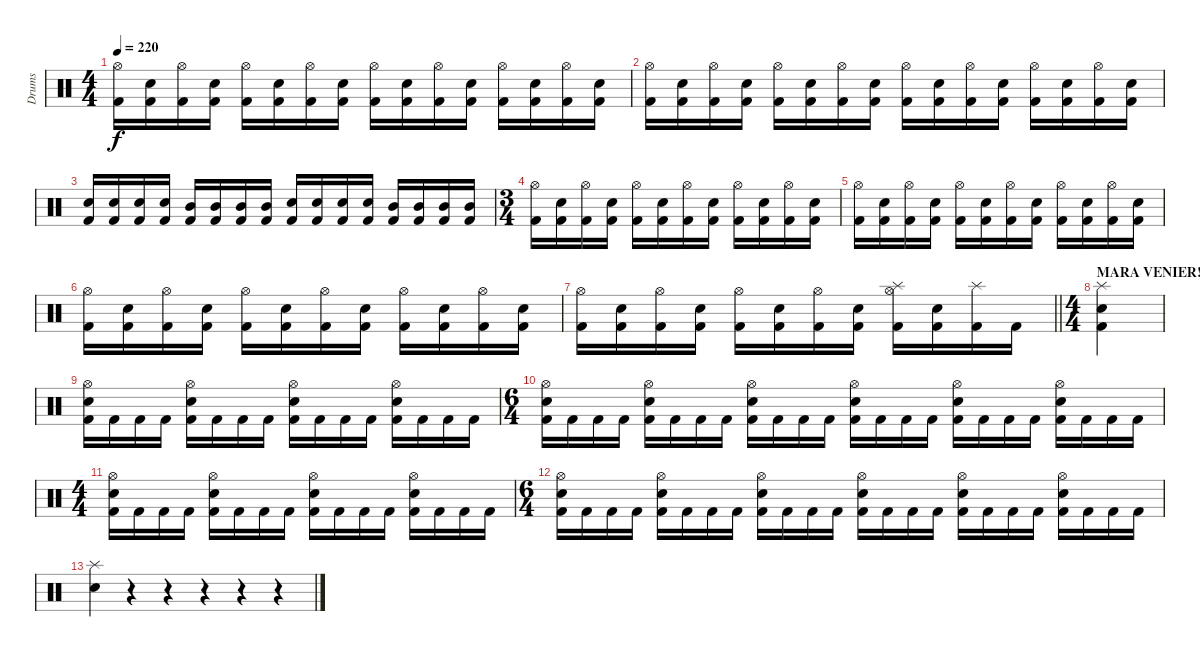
\track ("Drums" "Drums") {instrument percussion}
\staff {score}
\articulation defaults
\ts (4 4)
\tempo 220
\clef neutral
\ks c
("Hi-Hat (open)" "Kick (hit) 2").16{dy f} ("Electric Snare (hit)" "Kick (hit) 2").16 ("Hi-Hat (open)" "Kick (hit) 2").16 ("Electric Snare (hit)" "Kick (hit) 2").16 ("Hi-Hat (open)" "Kick (hit) 2").16 ("Electric Snare (hit)" "Kick (hit) 2").16 ("Hi-Hat (open)" "Kick (hit) 2").16 ("Electric Snare (hit)" "Kick (hit) 2").16 ("Hi-Hat (open)" "Kick (hit) 2").16 ("Electric Snare (hit)" "Kick (hit) 2").16 ("Hi-Hat (open)" "Kick (hit) 2").16 ("Electric Snare (hit)" "Kick (hit) 2").16 ("Hi-Hat (open)" "Kick (hit) 2").16 ("Electric Snare (hit)" "Kick (hit) 2").16 ("Hi-Hat (open)" "Kick (hit) 2").16 ("Electric Snare (hit)" "Kick (hit) 2").16 |
("Hi-Hat (open)" "Kick (hit) 2").16 ("Electric Snare (hit)" "Kick (hit) 2").16 ("Hi-Hat (open)" "Kick (hit) 2").16 ("Electric Snare (hit)" "Kick (hit) 2").16 ("Hi-Hat (open)" "Kick (hit) 2").16 ("Electric Snare (hit)" "Kick (hit) 2").16 ("Hi-Hat (open)" "Kick (hit) 2").16 ("Electric Snare (hit)" "Kick (hit) 2").16 ("Hi-Hat (open)" "Kick (hit) 2").16 ("Electric Snare (hit)" "Kick (hit) 2").16 ("Hi-Hat (open)" "Kick (hit) 2").16 ("Electric Snare (hit)" "Kick (hit) 2").16 ("Hi-Hat (open)" "Kick (hit) 2").16 ("Electric Snare (hit)" "Kick (hit) 2").16 ("Hi-Hat (open)" "Kick (hit) 2").16 ("Electric Snare (hit)" "Kick (hit) 2").16 |
("Electric Snare (hit)" "Kick (hit) 2").16 ("Electric Snare (hit)" "Kick (hit) 2").16 ("Electric Snare (hit)" "Kick (hit) 2").16 ("Electric Snare (hit)" "Kick (hit) 2").16 ("Mid Tom (hit)" "Kick (hit) 2").16 ("Mid Tom (hit)" "Kick (hit) 2").16 ("Mid Tom (hit)" "Kick (hit) 2").16 ("Mid Tom (hit)" "Kick (hit) 2").16 ("Electric Snare (hit)" "Kick (hit) 2").16 ("Electric Snare (hit)" "Kick (hit) 2").16 ("Electric Snare (hit)" "Kick (hit) 2").16 ("Electric Snare (hit)" "Kick (hit) 2").16 ("Mid Tom (hit)" "Kick (hit) 2").16 ("Mid Tom (hit)" "Kick (hit) 2").16 ("Mid Tom (hit)" "Kick (hit) 2").16 ("Mid Tom (hit)" "Kick (hit) 2").16 |
\ts (3 4)
("Hi-Hat (open)" "Kick (hit) 2").16 ("Electric Snare (hit)" "Kick (hit) 2").16 ("Hi-Hat (open)" "Kick (hit) 2").16 ("Electric Snare (hit)" "Kick (hit) 2").16 ("Hi-Hat (open)" "Kick (hit) 2").16 ("Electric Snare (hit)" "Kick (hit) 2").16 ("Hi-Hat (open)" "Kick (hit) 2").16 ("Electric Snare (hit)" "Kick (hit) 2").16 ("Hi-Hat (open)" "Kick (hit) 2").16 ("Electric Snare (hit)" "Kick (hit) 2").16 ("Hi-Hat (open)" "Kick (hit) 2").16 ("Electric Snare (hit)" "Kick (hit) 2").16 |
("Hi-Hat (open)" "Kick (hit) 2").16 ("Electric Snare (hit)" "Kick (hit) 2").16 ("Hi-Hat (open)" "Kick (hit) 2").16 ("Electric Snare (hit)" "Kick (hit) 2").16 ("Hi-Hat (open)" "Kick (hit) 2").16 ("Electric Snare (hit)" "Kick (hit) 2").16 ("Hi-Hat (open)" "Kick (hit) 2").16 ("Electric Snare (hit)" "Kick (hit) 2").16 ("Hi-Hat (open)" "Kick (hit) 2").16 ("Electric Snare (hit)" "Kick (hit) 2").16 ("Hi-Hat (open)" "Kick (hit) 2").16 ("Electric Snare (hit)" "Kick (hit) 2").16 |
("Hi-Hat (open)" "Kick (hit) 2").16 ("Electric Snare (hit)" "Kick (hit) 2").16 ("Hi-Hat (open)" "Kick (hit) 2").16 ("Electric Snare (hit)" "Kick (hit) 2").16 ("Hi-Hat (open)" "Kick (hit) 2").16 ("Electric Snare (hit)" "Kick (hit) 2").16 ("Hi-Hat (open)" "Kick (hit) 2").16 ("Electric Snare (hit)" "Kick (hit) 2").16 ("Hi-Hat (open)" "Kick (hit) 2").16 ("Electric Snare (hit)" "Kick (hit) 2").16 ("Hi-Hat (open)" "Kick (hit) 2").16 ("Electric Snare (hit)" "Kick (hit) 2").16 |
\barLineRight lightlight
("Hi-Hat (open)" "Kick (hit) 2").16 ("Electric Snare (hit)" "Kick (hit) 2").16 ("Hi-Hat (open)" "Kick (hit) 2").16 ("Electric Snare (hit)" "Kick (hit) 2").16 ("Hi-Hat (open)" "Kick (hit) 2").16 ("Electric Snare (hit)" "Kick (hit) 2").16 ("Hi-Hat (open)" "Kick (hit) 2").16 ("Electric Snare (hit)" "Kick (hit) 2").16 ("Splash (hit)" "Hi-Hat (open)" "Kick (hit) 2").16 ("Electric Snare (hit)" "Kick (hit) 2").16 ("Splash (hit)" "Kick (hit) 2").16 "Kick (hit) 2".16 |
\ts (4 4)
\section ("" "MARA VENIER! ")
("Splash (hit)" "Electric Snare (hit)" "Kick (hit) 2").4 |
("Hi-Hat (open)" "Electric Snare (hit)" "Kick (hit) 2").16 "Kick (hit) 2".16 "Kick (hit) 2".16 "Kick (hit) 2".16 ("Hi-Hat (open)" "Electric Snare (hit)" "Kick (hit) 2").16 "Kick (hit) 2".16 "Kick (hit) 2".16 "Kick (hit) 2".16 ("Hi-Hat (open)" "Electric Snare (hit)" "Kick (hit) 2").16 "Kick (hit) 2".16 "Kick (hit) 2".16 "Kick (hit) 2".16 ("Hi-Hat (open)" "Electric Snare (hit)" "Kick (hit) 2").16 "Kick (hit) 2".16 "Kick (hit) 2".16 "Kick (hit) 2".16 |
\ts (6 4)
("Hi-Hat (open)" "Electric Snare (hit)" "Kick (hit) 2").16 "Kick (hit) 2".16 "Kick (hit) 2".16 "Kick (hit) 2".16 ("Hi-Hat (open)" "Electric Snare (hit)" "Kick (hit) 2").16 "Kick (hit) 2".16 "Kick (hit) 2".16 "Kick (hit) 2".16 ("Hi-Hat (open)" "Electric Snare (hit)" "Kick (hit) 2").16 "Kick (hit) 2".16 "Kick (hit) 2".16 "Kick (hit) 2".16 ("Hi-Hat (open)" "Electric Snare (hit)" "Kick (hit) 2").16 "Kick (hit) 2".16 "Kick (hit) 2".16 "Kick (hit) 2".16 ("Hi-Hat (open)" "Electric Snare (hit)" "Kick (hit) 2").16 "Kick (hit) 2".16 "Kick (hit) 2".16 "Kick (hit) 2".16 ("Hi-Hat (open)" "Electric Snare (hit)" "Kick (hit) 2").16 "Kick (hit) 2".16 "Kick (hit) 2".16 "Kick (hit) 2".16 |
\ts (4 4)
("Hi-Hat (open)" "Electric Snare (hit)" "Kick (hit) 2").16 "Kick (hit) 2".16 "Kick (hit) 2".16 "Kick (hit) 2".16 ("Hi-Hat (open)" "Electric Snare (hit)" "Kick (hit) 2").16 "Kick (hit) 2".16 "Kick (hit) 2".16 "Kick (hit) 2".16 ("Hi-Hat (open)" "Electric Snare (hit)" "Kick (hit) 2").16 "Kick (hit) 2".16 "Kick (hit) 2".16 "Kick (hit) 2".16 ("Hi-Hat (open)" "Electric Snare (hit)" "Kick (hit) 2").16 "Kick (hit) 2".16 "Kick (hit) 2".16 "Kick (hit) 2".16 |
\ts (6 4)
("Hi-Hat (open)" "Electric Snare (hit)" "Kick (hit) 2").16 "Kick (hit) 2".16 "Kick (hit) 2".16 "Kick (hit) 2".16 ("Hi-Hat (open)" "Electric Snare (hit)" "Kick (hit) 2").16 "Kick (hit) 2".16 "Kick (hit) 2".16 "Kick (hit) 2".16 ("Hi-Hat (open)" "Electric Snare (hit)" "Kick (hit) 2").16 "Kick (hit) 2".16 "Kick (hit) 2".16 "Kick (hit) 2".16 ("Hi-Hat (open)" "Electric Snare (hit)" "Kick (hit) 2").16 "Kick (hit) 2".16 "Kick (hit) 2".16 "Kick (hit) 2".16 ("Hi-Hat (open)" "Electric Snare (hit)" "Kick (hit) 2").16 "Kick (hit) 2".16 "Kick (hit) 2".16 "Kick (hit) 2".16 ("Hi-Hat (open)" "Electric Snare (hit)" "Kick (hit) 2").16 "Kick (hit) 2".16 "Kick (hit) 2".16 "Kick (hit) 2".16 |
("Splash (hit)" "Electric Snare (hit)").4 r.4 r.4 r.4 r.4 r.4
